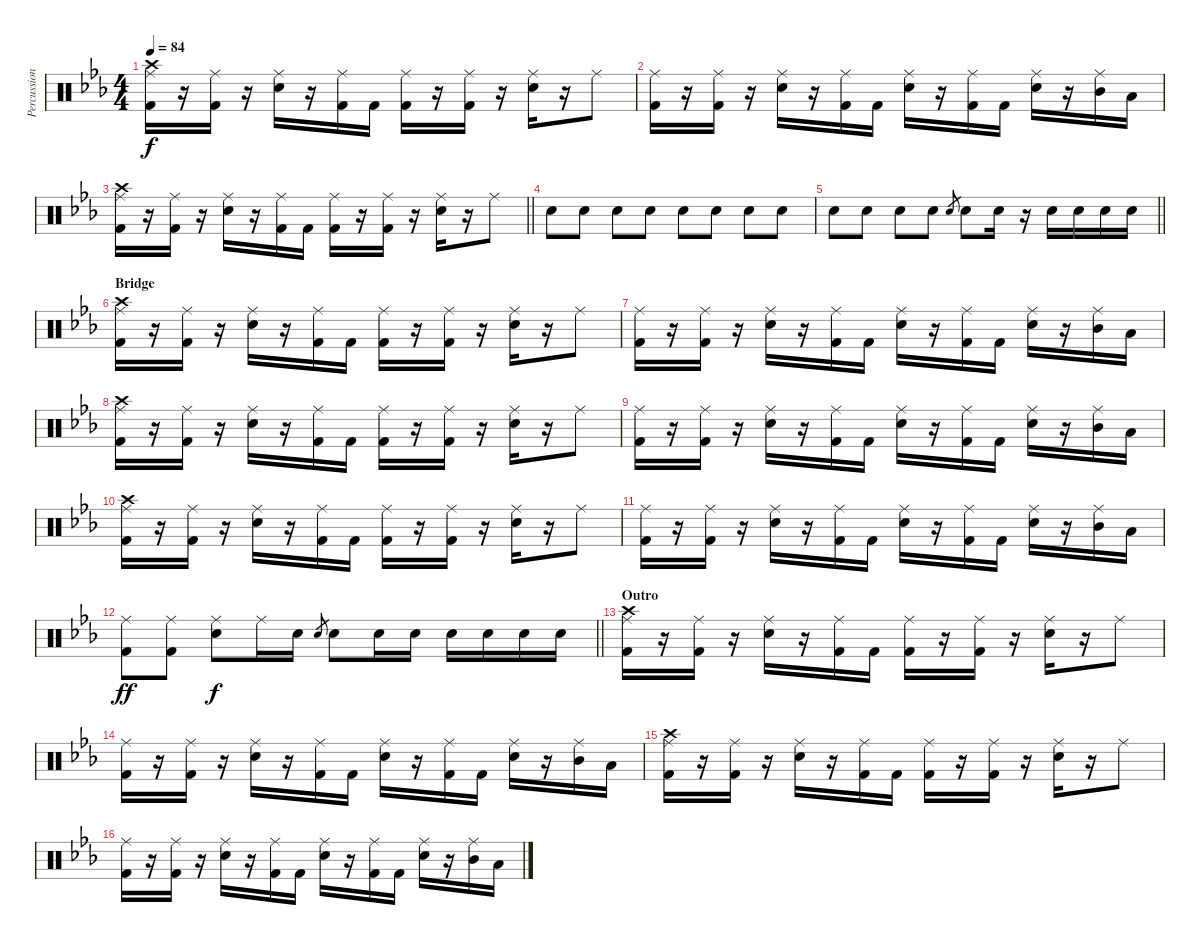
\track ("Percussion" "Percussion") {instrument percussion}
\staff {score}
\articulation defaults
\ts (4 4)
\tempo 84
\clef neutral
\ks eb
("Ride (middle)" "Crash high (hit)" "Kick (hit) 2").16{dy f} r.16 ("Ride (middle)" "Kick (hit) 2").16 r.16 ("Ride (middle)" "Electric Snare (hit)").16 r.16 ("Ride (middle)" "Kick (hit) 2").16 "Kick (hit) 2".16 ("Ride (middle)" "Kick (hit) 2").16 r.16 ("Ride (middle)" "Kick (hit) 2").16 r.16 ("Ride (middle)" "Electric Snare (hit)").16 r.16 "Ride (middle)".8 |
("Ride (middle)" "Kick (hit) 2").16 r.16 ("Ride (middle)" "Kick (hit) 2").16 r.16 ("Ride (middle)" "Electric Snare (hit)").16 r.16 ("Ride (middle)" "Kick (hit) 2").16 "Kick (hit) 2".16 ("Ride (middle)" "Electric Snare (hit)").16 r.16 ("Ride (middle)" "Kick (hit) 2").16 "Kick (hit) 2".16 ("Ride (middle)" "Electric Snare (hit)").16 r.16 ("Ride (middle)" "Mid Tom (hit)").16 "Low Tom (hit)".16 |
\barLineRight lightlight
("Ride (middle)" "Crash high (hit)" "Kick (hit) 2").16 r.16 ("Ride (middle)" "Kick (hit) 2").16 r.16 ("Ride (middle)" "Electric Snare (hit)").16 r.16 ("Ride (middle)" "Kick (hit) 2").16 "Kick (hit) 2".16 ("Ride (middle)" "Kick (hit) 2").16 r.16 ("Ride (middle)" "Kick (hit) 2").16 r.16 ("Ride (middle)" "Electric Snare (hit)").16 r.16 "Ride (middle)".8 |
"Electric Snare (hit)".8 "Electric Snare (hit)".8 "Electric Snare (hit)".8 "Electric Snare (hit)".8 "Electric Snare (hit)".8 "Electric Snare (hit)".8 "Electric Snare (hit)".8 "Electric Snare (hit)".8 |
\barLineRight lightlight "Electric Snare (hit)".8 "Electric Snare (hit)".8 "Electric Snare (hit)".8 "Electric Snare (hit)".8 "Electric Snare (hit)".8{gr} "Electric Snare (hit)".8 "Electric Snare (hit)".16
r.16 "Electric Snare (hit)".16 "Electric Snare (hit)".16 "Electric Snare (hit)".16 "Electric Snare (hit)".16 |
\section ("" "Bridge")
("Ride (middle)" "Crash high (hit)" "Kick (hit) 2").16 r.16 ("Ride (middle)" "Kick (hit) 2").16 r.16 ("Ride (middle)" "Electric Snare (hit)").16 r.16 ("Ride (middle)" "Kick (hit) 2").16 "Kick (hit) 2".16 ("Ride (middle)" "Kick (hit) 2").16 r.16 ("Ride (middle)" "Kick (hit) 2").16 r.16 ("Ride (middle)" "Electric Snare (hit)").16 r.16 "Ride (middle)".8 |
("Ride (middle)" "Kick (hit) 2").16 r.16 ("Ride (middle)" "Kick (hit) 2").16 r.16 ("Ride (middle)" "Electric Snare (hit)").16 r.16 ("Ride (middle)" "Kick (hit) 2").16 "Kick (hit) 2".16 ("Ride (middle)" "Electric Snare (hit)").16 r.16 ("Ride (middle)" "Kick (hit) 2").16 "Kick (hit) 2".16 ("Ride (middle)" "Electric Snare (hit)").16 r.16 ("Ride (middle)" "Mid Tom (hit)").16 "Low Tom (hit)".16 |
("Ride (middle)" "Crash high (hit)" "Kick (hit) 2").16 r.16 ("Ride (middle)" "Kick (hit) 2").16 r.16 ("Ride (middle)" "Electric Snare (hit)").16 r.16 ("Ride (middle)" "Kick (hit) 2").16 "Kick (hit) 2".16 ("Ride (middle)" "Kick (hit) 2").16 r.16 ("Ride (middle)" "Kick (hit) 2").16 r.16 ("Ride (middle)" "Electric Snare (hit)").16 r.16 "Ride (middle)".8 |
("Ride (middle)" "Kick (hit) 2").16 r.16 ("Ride (middle)" "Kick (hit) 2").16 r.16 ("Ride (middle)" "Electric Snare (hit)").16 r.16 ("Ride (middle)" "Kick (hit) 2").16 "Kick (hit) 2".16 ("Ride (middle)" "Electric Snare (hit)").16 r.16 ("Ride (middle)" "Kick (hit) 2").16 "Kick (hit) 2".16 ("Ride (middle)" "Electric Snare (hit)").16 r.16 ("Ride (middle)" "Mid Tom (hit)").16 "Low Tom (hit)".16 |
("Ride (middle)" "Crash high (hit)" "Kick (hit) 2").16 r.16 ("Ride (middle)" "Kick (hit) 2").16 r.16 ("Ride (middle)" "Electric Snare (hit)").16 r.16 ("Ride (middle)" "Kick (hit) 2").16 "Kick (hit) 2".16 ("Ride (middle)" "Kick (hit) 2").16 r.16 ("Ride (middle)" "Kick (hit) 2").16 r.16 ("Ride (middle)" "Electric Snare (hit)").16 r.16 "Ride (middle)".8 |
("Ride (middle)" "Kick (hit) 2").16 r.16 ("Ride (middle)" "Kick (hit) 2").16 r.16 ("Ride (middle)" "Electric Snare (hit)").16 r.16 ("Ride (middle)" "Kick (hit) 2").16 "Kick (hit) 2".16 ("Ride (middle)" "Electric Snare (hit)").16 r.16 ("Ride (middle)" "Kick (hit) 2").16 "Kick (hit) 2".16 ("Ride (middle)" "Electric Snare (hit)").16 r.16 ("Ride (middle)" "Mid Tom (hit)").16 "Low Tom (hit)".16 |
\barLineRight lightlight
("Ride (middle)" "Kick (hit) 2").8{dy ff} ("Ride (middle)" "Kick (hit) 2").8 ("Ride (middle)" "Electric Snare (hit)").8{dy f} "Ride (middle)".16 "Electric Snare (hit)".16 "Electric Snare (hit)".8{gr} "Electric Snare (hit)".8 "Electric Snare (hit)".16 "Electric Snare (hit)".16 "Electric Snare (hit)".16 "Electric Snare (hit)".16 "Electric Snare (hit)".16 "Electric Snare (hit)".16 |
\section ("" "Outro")
("Ride (middle)" "Crash high (hit)" "Kick (hit) 2").16 r.16 ("Ride (middle)" "Kick (hit) 2").16 r.16 ("Ride (middle)" "Electric Snare (hit)").16 r.16 ("Ride (middle)" "Kick (hit) 2").16 "Kick (hit) 2".16 ("Ride (middle)" "Kick (hit) 2").16 r.16 ("Ride (middle)" "Kick (hit) 2").16 r.16 ("Ride (middle)" "Electric Snare (hit)").16 r.16 "Ride (middle)".8 |
("Ride (middle)" "Kick (hit) 2").16 r.16 ("Ride (middle)" "Kick (hit) 2").16 r.16 ("Ride (middle)" "Electric Snare (hit)").16 r.16 ("Ride (middle)" "Kick (hit) 2").16 "Kick (hit) 2".16 ("Ride (middle)" "Electric Snare (hit)").16 r.16 ("Ride (middle)" "Kick (hit) 2").16 "Kick (hit) 2".16 ("Ride (middle)" "Electric Snare (hit)").16 r.16 ("Ride (middle)" "Mid Tom (hit)").16 "Low Tom (hit)".16 |
("Ride (middle)" "Crash high (hit)" "Kick (hit) 2").16 r.16 ("Ride (middle)" "Kick (hit) 2").16 r.16 ("Ride (middle)" "Electric Snare (hit)").16 r.16 ("Ride (middle)" "Kick (hit) 2").16 "Kick (hit) 2".16 ("Ride (middle)" "Kick (hit) 2").16 r.16 ("Ride (middle)" "Kick (hit) 2").16 r.16 ("Ride (middle)" "Electric Snare (hit)").16 r.16 "Ride (middle)".8 |
("Ride (middle)" "Kick (hit) 2").16 r.16 ("Ride (middle)" "Kick (hit) 2").16 r.16 ("Ride (middle)" "Electric Snare (hit)").16 r.16 ("Ride (middle)" "Kick (hit) 2").16 "Kick (hit) 2".16 ("Ride (middle)" "Electric Snare (hit)").16 r.16 ("Ride (middle)" "Kick (hit) 2").16 "Kick (hit) 2".16 ("Ride (middle)" "Electric Snare (hit)").16 r.16 ("Ride (middle)" "Mid Tom (hit)").16 "Low Tom (hit)".16
